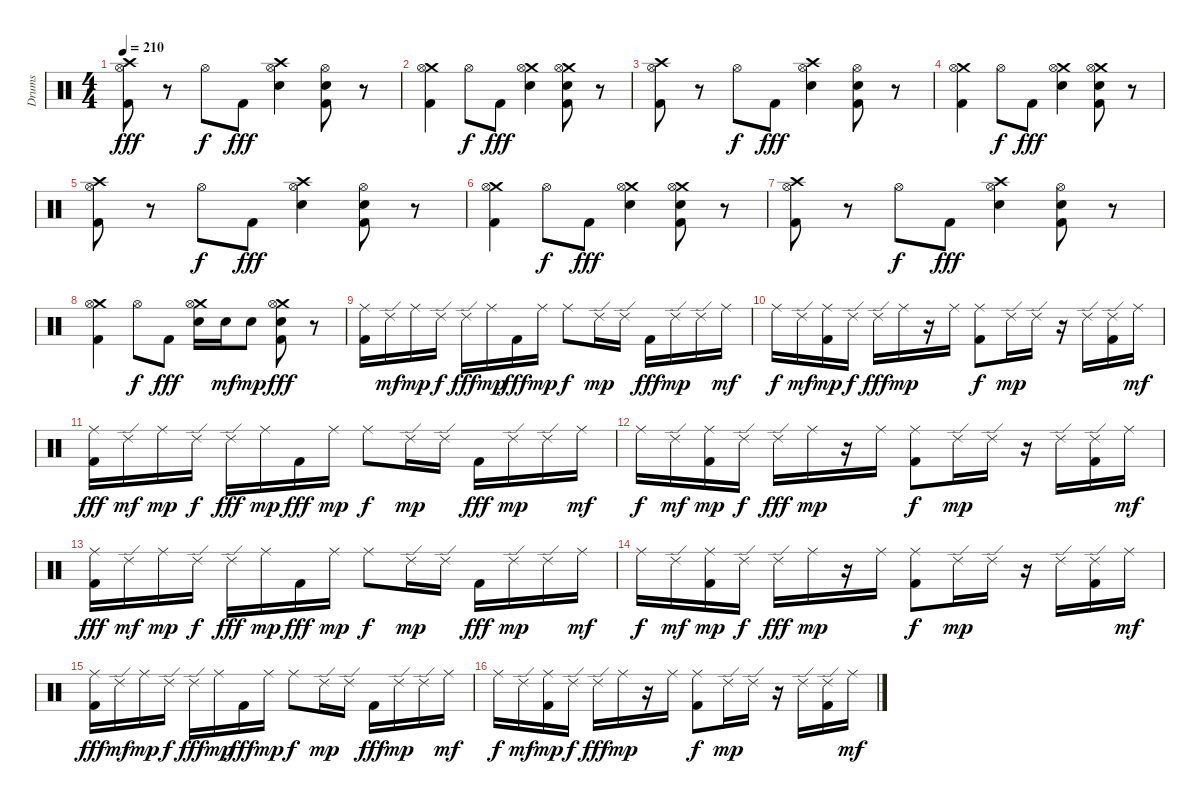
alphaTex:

\track ("Drums" "Drums") {instrument percussion}
\staff {score}
\articulation defaults
\ts (4 4)
\tempo 210
\clef neutral
\ks c
("Crash high (hit)" "Hi-Hat (open)" "Kick (hit) 2").8{dy fff} r.8 "Hi-Hat (open)".8{dy f} "Kick (hit) 2".8{dy fff} ("Crash high (hit)" "Hi-Hat (open)" "Electric Snare (hit)").4 ("Hi-Hat (open)" "Electric Snare (hit)" "Kick (hit) 2").8 r.8 |
("Crash medium (hit)" "Hi-Hat (open)" "Kick (hit) 2").4 "Hi-Hat (open)".8{dy f} "Kick (hit) 2".8{dy fff} ("Crash medium (hit)" "Hi-Hat (open)" "Electric Snare (hit)").4 ("Crash medium (hit)" "Hi-Hat (open)" "Electric Snare (hit)" "Kick (hit) 2").8 r.8 |
("Crash high (hit)" "Hi-Hat (open)" "Kick (hit) 2").8 r.8 "Hi-Hat (open)".8{dy f} "Kick (hit) 2".8{dy fff} ("Crash high (hit)" "Hi-Hat (open)" "Electric Snare (hit)").4 ("Hi-Hat (open)" "Electric Snare (hit)" "Kick (hit) 2").8 r.8 |
("Crash medium (hit)" "Hi-Hat (open)" "Kick (hit) 2").4 "Hi-Hat (open)".8{dy f} "Kick (hit) 2".8{dy fff} ("Crash medium (hit)" "Hi-Hat (open)" "Electric Snare (hit)").4 ("Crash medium (hit)" "Hi-Hat (open)" "Electric Snare (hit)" "Kick (hit) 2").8 r.8 |
("Crash high (hit)" "Hi-Hat (open)" "Kick (hit) 2").8 r.8 "Hi-Hat (open)".8{dy f} "Kick (hit) 2".8{dy fff} ("Crash high (hit)" "Hi-Hat (open)" "Electric Snare (hit)").4 ("Hi-Hat (open)" "Electric Snare (hit)" "Kick (hit) 2").8 r.8 |
("Crash medium (hit)" "Hi-Hat (open)" "Kick (hit) 2").4 "Hi-Hat (open)".8{dy f} "Kick (hit) 2".8{dy fff} ("Crash medium (hit)" "Hi-Hat (open)" "Electric Snare (hit)").4 ("Crash medium (hit)" "Hi-Hat (open)" "Electric Snare (hit)" "Kick (hit) 2").8 r.8 |
("Crash high (hit)" "Hi-Hat (open)" "Kick (hit) 2").8 r.8 "Hi-Hat (open)".8{dy f} "Kick (hit) 2".8{dy fff} ("Crash high (hit)" "Hi-Hat (open)" "Electric Snare (hit)").4 ("Hi-Hat (open)" "Electric Snare (hit)" "Kick (hit) 2").8 r.8 |
("Crash medium (hit)" "Hi-Hat (open)" "Kick (hit) 2").4 "Hi-Hat (open)".8{dy f} "Kick (hit) 2".8{dy fff} ("Crash medium (hit)" "Hi-Hat (open)" "Electric Snare (hit)").16 "Electric Snare (hit)".16{dy mf} "Electric Snare (hit)".8{dy mp} ("Crash medium (hit)" "Hi-Hat (open)" "Electric Snare (hit)" "Kick (hit) 2").8{dy fff} r.8 |
("Ride (middle)" "Kick (hit) 2").16 "Ride (edge) 2".16{dy mf} "Ride (middle)".16{dy mp} "Ride (edge) 2".16{dy f} "Ride (edge) 2".16{dy fff} "Ride (middle)".16{dy mp} "Kick (hit) 2".16{dy fff} "Ride (middle)".16{dy mp} "Ride (middle)".8{dy f} "Ride (edge) 2".16{dy mp} "Ride (edge) 2".16 "Kick (hit) 2".16{dy fff} "Ride (edge) 2".16{dy mp} "Ride (edge) 2".16 "Ride (middle)".16{dy mf} |
"Ride (middle)".16{dy f} "Ride (edge) 2".16{dy mf} ("Ride (middle)" "Kick (hit) 2").16{dy mp} "Ride (edge) 2".16{dy f} "Ride (edge) 2".16{dy fff} "Ride (middle)".16{dy mp} r.16 "Ride (middle)".16 ("Ride (middle)" "Kick (hit) 2").8{dy f} "Ride (edge) 2".16{dy mp} "Ride (edge) 2".16 r.16 "Ride (edge) 2".16 ("Ride (edge) 2" "Kick (hit) 2").16 "Ride (middle)".16{dy mf} |
("Ride (middle)" "Kick (hit) 2").16{dy fff} "Ride (edge) 2".16{dy mf} "Ride (middle)".16{dy mp} "Ride (edge) 2".16{dy f} "Ride (edge) 2".16{dy fff} "Ride (middle)".16{dy mp} "Kick (hit) 2".16{dy fff} "Ride (middle)".16{dy mp} "Ride (middle)".8{dy f} "Ride (edge) 2".16{dy mp} "Ride (edge) 2".16 "Kick (hit) 2".16{dy fff} "Ride (edge) 2".16{dy mp} "Ride (edge) 2".16 "Ride (middle)".16{dy mf} |
"Ride (middle)".16{dy f} "Ride (edge) 2".16{dy mf} ("Ride (middle)" "Kick (hit) 2").16{dy mp} "Ride (edge) 2".16{dy f} "Ride (edge) 2".16{dy fff} "Ride (middle)".16{dy mp} r.16 "Ride (middle)".16 ("Ride (middle)" "Kick (hit) 2").8{dy f} "Ride (edge) 2".16{dy mp} "Ride (edge) 2".16 r.16 "Ride (edge) 2".16 ("Ride (edge) 2" "Kick (hit) 2").16 "Ride (middle)".16{dy mf} |
("Ride (middle)" "Kick (hit) 2").16{dy fff} "Ride (edge) 2".16{dy mf} "Ride (middle)".16{dy mp} "Ride (edge) 2".16{dy f} "Ride (edge) 2".16{dy fff} "Ride (middle)".16{dy mp} "Kick (hit) 2".16{dy fff} "Ride (middle)".16{dy mp} "Ride (middle)".8{dy f} "Ride (edge) 2".16{dy mp} "Ride (edge) 2".16 "Kick (hit) 2".16{dy fff} "Ride (edge) 2".16{dy mp} "Ride (edge) 2".16 "Ride (middle)".16{dy mf} |
"Ride (middle)".16{dy f} "Ride (edge) 2".16{dy mf} ("Ride (middle)" "Kick (hit) 2").16{dy mp} "Ride (edge) 2".16{dy f} "Ride (edge) 2".16{dy fff} "Ride (middle)".16{dy mp} r.16 "Ride (middle)".16 ("Ride (middle)" "Kick (hit) 2").8{dy f} "Ride (edge) 2".16{dy mp} "Ride (edge) 2".16 r.16 "Ride (edge) 2".16 ("Ride (edge) 2" "Kick (hit) 2").16 "Ride (middle)".16{dy mf} |
("Ride (middle)" "Kick (hit) 2").16{dy fff} "Ride (edge) 2".16{dy mf} "Ride (middle)".16{dy mp} "Ride (edge) 2".16{dy f} "Ride (edge) 2".16{dy fff} "Ride (middle)".16{dy mp} "Kick (hit) 2".16{dy fff} "Ride (middle)".16{dy mp} "Ride (middle)".8{dy f} "Ride (edge) 2".16{dy mp} "Ride (edge) 2".16 "Kick (hit) 2".16{dy fff} "Ride (edge) 2".16{dy mp} "Ride (edge) 2".16 "Ride (middle)".16{dy mf} |
"Ride (middle)".16{dy f} "Ride (edge) 2".16{dy mf} ("Ride (middle)" "Kick (hit) 2").16{dy mp} "Ride (edge) 2".16{dy f} "Ride (edge) 2".16{dy fff} "Ride (middle)".16{dy mp} r.16 "Ride (middle)".16 ("Ride (middle)" "Kick (hit) 2").8{dy f} "Ride (edge) 2".16{dy mp} "Ride (edge) 2".16 r.16 "Ride (edge) 2".16 ("Ride (edge) 2" "Kick (hit) 2").16 "Ride (middle)".16{dy mf}
